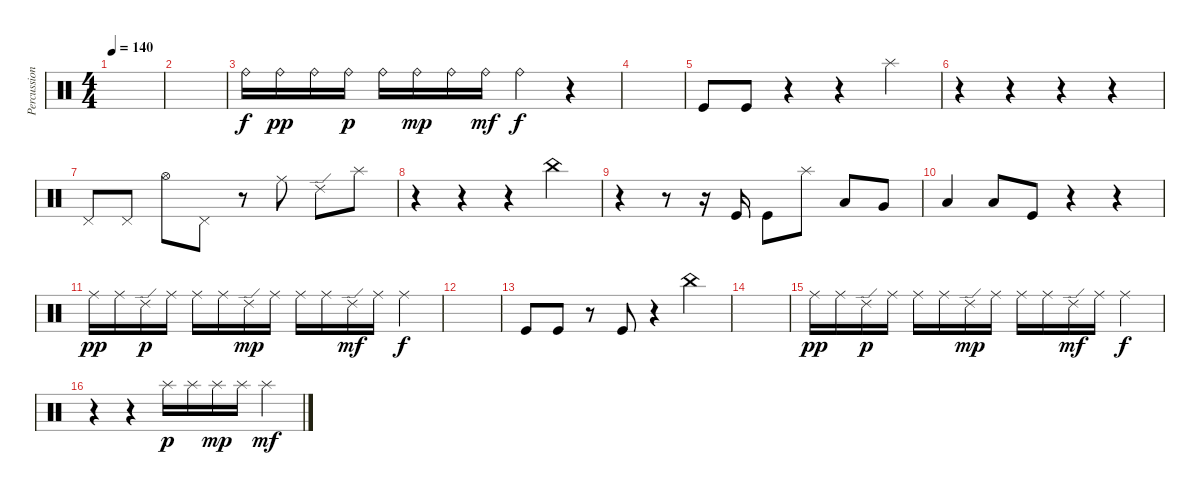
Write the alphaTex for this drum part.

\track ("Percussion" "Percussion") {instrument percussion}
\staff {score}
\articulation defaults
\ts (4 4)
\tempo 140
\clef neutral
\ks c
|
|
"Ride (bell)".16 "Ride (bell)".16{dy pp} "Ride (bell)".16 "Ride (bell)".16{dy p} "Ride (bell)".16 "Ride (bell)".16{dy mp} "Ride (bell)".16 "Ride (bell)".16{dy mf} "Ride (bell)".4{dy f} r.4 |
|
"Kick (hit)".8 "Kick (hit)".8 r.4 r.4 "Splash (hit)".4 |
r.4 r.4 r.4 r.4 |
"Pedal Hi-Hat (hit)".8 "Pedal Hi-Hat (hit)".8 "Hi-Hat (open)".8 "Pedal Hi-Hat (hit)".8 r.8 "Ride (middle)".8 "Ride (edge) 2".8 "Splash (hit)".8 |
r.4 r.4 r.4 "China (hit)".4 |
r.4 r.8 r.16 "Kick (hit)".16 "Kick (hit)".8 "Splash (hit)".8 "Low Tom (hit)".8 "Very Low Tom (hit)".8 |
"Low Floor Tom (hit)".4 "Low Floor Tom (hit)".8 "Kick (hit)".8 r.4 r.4 |
"Ride (middle)".16{dy pp} "Ride (middle)".16 "Ride (edge) 2".16{dy p} "Ride (middle)".16 "Ride (middle)".16 "Ride (middle)".16 "Ride (edge) 2".16{dy mp} "Ride (middle)".16 "Ride (middle)".16 "Ride (middle)".16 "Ride (edge) 2".16{dy mf} "Ride (middle)".16 "Ride (middle)".4{dy f} |
|
"Kick (hit)".8 "Kick (hit)".8 r.8 "Kick (hit)".8 r.4 "China (hit)".4 |
|
"Ride (middle)".16{dy pp} "Ride (middle)".16 "Ride (edge) 2".16{dy p} "Ride (middle)".16 "Ride (middle)".16 "Ride (middle)".16 "Ride (edge) 2".16{dy mp} "Ride (middle)".16 "Ride (middle)".16 "Ride (middle)".16 "Ride (edge) 2".16{dy mf} "Ride (middle)".16 "Ride (middle)".4{dy f} |
r.4 r.4 "Splash (hit)".16{dy p} "Splash (hit)".16 "Splash (hit)".16{dy mp} "Splash (hit)".16 "Splash (hit)".4{dy mf}
